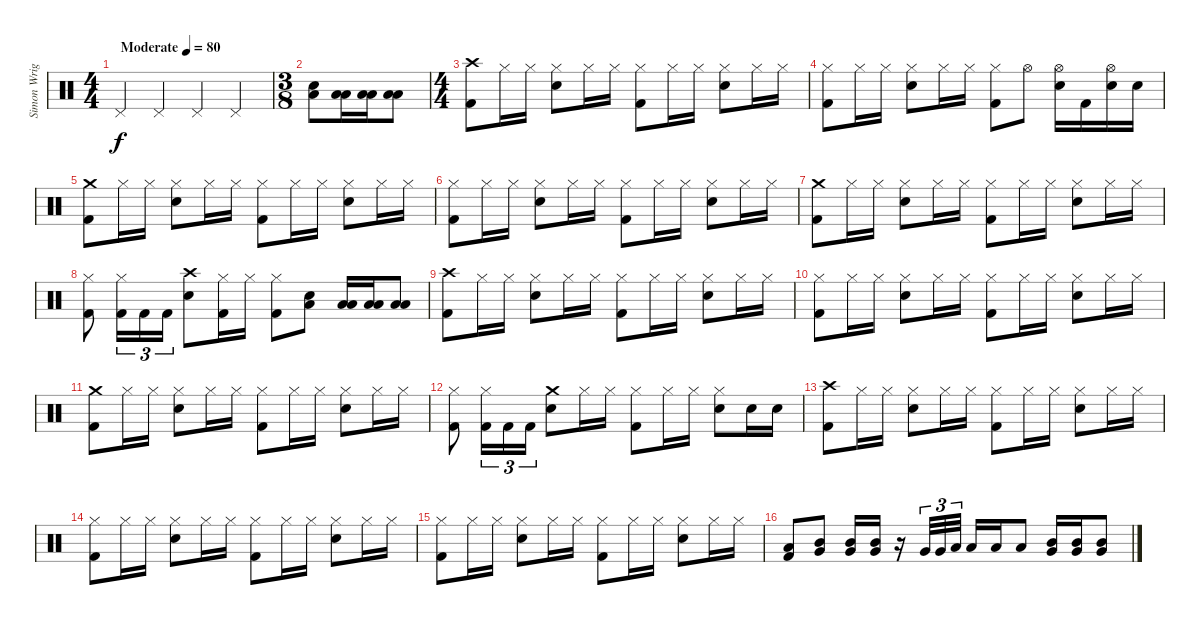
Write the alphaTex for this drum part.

\track ("Simon Wright" "Simon Wrig") {instrument percussion}
\staff {score}
\articulation defaults
\ts (4 4)
\tempo (80 "Moderate")
\clef neutral
\ks c "Pedal Hi-Hat (hit)".4{dy f} "Pedal Hi-Hat (hit)".4 "Pedal Hi-Hat (hit)".4 "Pedal Hi-Hat (hit)".4
|
\ts (3 8)
("Low Tom (hit)" "Snare (hit) 2").8 ("Low Tom (hit)" "Low Floor Tom (hit)").16 ("Low Tom (hit)" "Low Floor Tom (hit)").16 ("Low Tom (hit)" "Low Floor Tom (hit)").8 |
\ts (4 4)
("Crash high (hit)" "Kick (hit) 2").8 "Hi-Hat (closed)".16 "Hi-Hat (closed)".16 ("Hi-Hat (closed)" "Snare (hit) 2").8 "Hi-Hat (closed)".16 "Hi-Hat (closed)".16 ("Hi-Hat (closed)" "Kick (hit) 2").8 "Hi-Hat (closed)".16 "Hi-Hat (closed)".16 ("Hi-Hat (closed)" "Snare (hit) 2").8 "Hi-Hat (closed)".16 "Hi-Hat (closed)".16 |
("Hi-Hat (closed)" "Kick (hit) 2").8 "Hi-Hat (closed)".16 "Hi-Hat (closed)".16 ("Hi-Hat (closed)" "Snare (hit) 2").8 "Hi-Hat (closed)".16 "Hi-Hat (closed)".16 ("Hi-Hat (closed)" "Kick (hit) 2").8 "Hi-Hat (open)".8 ("Hi-Hat (open)" "Snare (hit) 2").16 "Kick (hit) 2".16 ("Hi-Hat (open)" "Snare (hit) 2").16 "Snare (hit) 2".16 |
("Crash medium (hit)" "Kick (hit) 2").8 "Hi-Hat (closed)".16 "Hi-Hat (closed)".16 ("Hi-Hat (closed)" "Snare (hit) 2").8 "Hi-Hat (closed)".16 "Hi-Hat (closed)".16 ("Hi-Hat (closed)" "Kick (hit) 2").8 "Hi-Hat (closed)".16 "Hi-Hat (closed)".16 ("Hi-Hat (closed)" "Snare (hit) 2").8 "Hi-Hat (closed)".16 "Hi-Hat (closed)".16 |
("Hi-Hat (closed)" "Kick (hit) 2").8 "Hi-Hat (closed)".16 "Hi-Hat (closed)".16 ("Hi-Hat (closed)" "Snare (hit) 2").8 "Hi-Hat (closed)".16 "Hi-Hat (closed)".16 ("Hi-Hat (closed)" "Kick (hit) 2").8 "Hi-Hat (closed)".16 "Hi-Hat (closed)".16 ("Hi-Hat (closed)" "Snare (hit) 2").8 "Hi-Hat (closed)".16 "Hi-Hat (closed)".16 |
("Crash medium (hit)" "Kick (hit) 2").8 "Hi-Hat (closed)".16 "Hi-Hat (closed)".16 ("Hi-Hat (closed)" "Snare (hit) 2").8 "Hi-Hat (closed)".16 "Hi-Hat (closed)".16 ("Hi-Hat (closed)" "Kick (hit) 2").8 "Hi-Hat (closed)".16 "Hi-Hat (closed)".16 ("Hi-Hat (closed)" "Snare (hit) 2").8 "Hi-Hat (closed)".16 "Hi-Hat (closed)".16 |
("Hi-Hat (closed)" "Kick (hit) 2").8 ("Hi-Hat (closed)" "Kick (hit) 2").16{tu (3 2)} "Kick (hit) 2".16{tu (3 2)} "Kick (hit) 2".16{tu (3 2)} ("Crash high (hit)" "Snare (hit) 2").8 ("Hi-Hat (closed)" "Kick (hit) 2").16 "Hi-Hat (closed)".16 ("Hi-Hat (closed)" "Kick (hit) 2").8 ("Low Tom (hit)" "Snare (hit) 2").8 ("Low Tom (hit)" "Low Floor Tom (hit)").16 ("Low Tom (hit)" "Low Floor Tom (hit)").16 ("Low Tom (hit)" "Low Floor Tom (hit)").8 |
("Crash high (hit)" "Kick (hit) 2").8 "Hi-Hat (closed)".16 "Hi-Hat (closed)".16 ("Hi-Hat (closed)" "Snare (hit) 2").8 "Hi-Hat (closed)".16 "Hi-Hat (closed)".16 ("Hi-Hat (closed)" "Kick (hit) 2").8 "Hi-Hat (closed)".16 "Hi-Hat (closed)".16 ("Hi-Hat (closed)" "Snare (hit) 2").8 "Hi-Hat (closed)".16 "Hi-Hat (closed)".16 |
("Hi-Hat (closed)" "Kick (hit) 2").8 "Hi-Hat (closed)".16 "Hi-Hat (closed)".16 ("Hi-Hat (closed)" "Snare (hit) 2").8 "Hi-Hat (closed)".16 "Hi-Hat (closed)".16 ("Hi-Hat (closed)" "Kick (hit) 2").8 "Hi-Hat (closed)".16 "Hi-Hat (closed)".16 ("Hi-Hat (closed)" "Snare (hit) 2").8 "Hi-Hat (closed)".16 "Hi-Hat (closed)".16 |
("Crash medium (hit)" "Kick (hit) 2").8 "Hi-Hat (closed)".16 "Hi-Hat (closed)".16 ("Hi-Hat (closed)" "Snare (hit) 2").8 "Hi-Hat (closed)".16 "Hi-Hat (closed)".16 ("Hi-Hat (closed)" "Kick (hit) 2").8 "Hi-Hat (closed)".16 "Hi-Hat (closed)".16 ("Hi-Hat (closed)" "Snare (hit) 2").8 "Hi-Hat (closed)".16 "Hi-Hat (closed)".16 |
("Hi-Hat (closed)" "Kick (hit) 2").8 ("Hi-Hat (closed)" "Kick (hit) 2").16{tu (3 2)} "Kick (hit) 2".16{tu (3 2)} "Kick (hit) 2".16{tu (3 2)} ("Crash medium (hit)" "Snare (hit) 2").8 "Hi-Hat (closed)".16 "Hi-Hat (closed)".16 ("Hi-Hat (closed)" "Kick (hit) 2").8 "Hi-Hat (closed)".16 "Hi-Hat (closed)".16 ("Hi-Hat (closed)" "Snare (hit) 2").8 "Snare (hit) 2".16 "Snare (hit) 2".16 |
("Crash high (hit)" "Kick (hit) 2").8 "Hi-Hat (closed)".16 "Hi-Hat (closed)".16 ("Hi-Hat (closed)" "Snare (hit) 2").8 "Hi-Hat (closed)".16 "Hi-Hat (closed)".16 ("Hi-Hat (closed)" "Kick (hit) 2").8 "Hi-Hat (closed)".16 "Hi-Hat (closed)".16 ("Hi-Hat (closed)" "Snare (hit) 2").8 "Hi-Hat (closed)".16 "Hi-Hat (closed)".16 |
("Hi-Hat (closed)" "Kick (hit) 2").8 "Hi-Hat (closed)".16 "Hi-Hat (closed)".16 ("Hi-Hat (closed)" "Snare (hit) 2").8 "Hi-Hat (closed)".16 "Hi-Hat (closed)".16 ("Hi-Hat (closed)" "Kick (hit) 2").8 "Hi-Hat (closed)".16 "Hi-Hat (closed)".16 ("Hi-Hat (closed)" "Snare (hit) 2").8 "Hi-Hat (closed)".16 "Hi-Hat (closed)".16 |
("Hi-Hat (closed)" "Kick (hit) 2").8 "Hi-Hat (closed)".16 "Hi-Hat (closed)".16 ("Hi-Hat (closed)" "Snare (hit) 2").8 "Hi-Hat (closed)".16 "Hi-Hat (closed)".16 ("Hi-Hat (closed)" "Kick (hit) 2").8 "Hi-Hat (closed)".16 "Hi-Hat (closed)".16 ("Hi-Hat (closed)" "Snare (hit) 2").8 "Hi-Hat (closed)".16 "Hi-Hat (closed)".16 |
("Low Floor Tom (hit)" "Kick (hit) 2").8 ("Mid Tom (hit)" "Very Low Tom (hit)").8 ("Mid Tom (hit)" "Very Low Tom (hit)").16 ("Mid Tom (hit)" "Very Low Tom (hit)").16 r.16 "Very Low Tom (hit)".32{tu (3 2)} "Very Low Tom (hit)".32{tu (3 2)} "Low Tom (hit)".32{tu (3 2)} "Low Tom (hit)".16 "Low Floor Tom (hit)".16 "Low Tom (hit)".8 ("Mid Tom (hit)" "Very Low Tom (hit)").16 ("Mid Tom (hit)" "Very Low Tom (hit)").16 ("Mid Tom (hit)" "Very Low Tom (hit)").8
